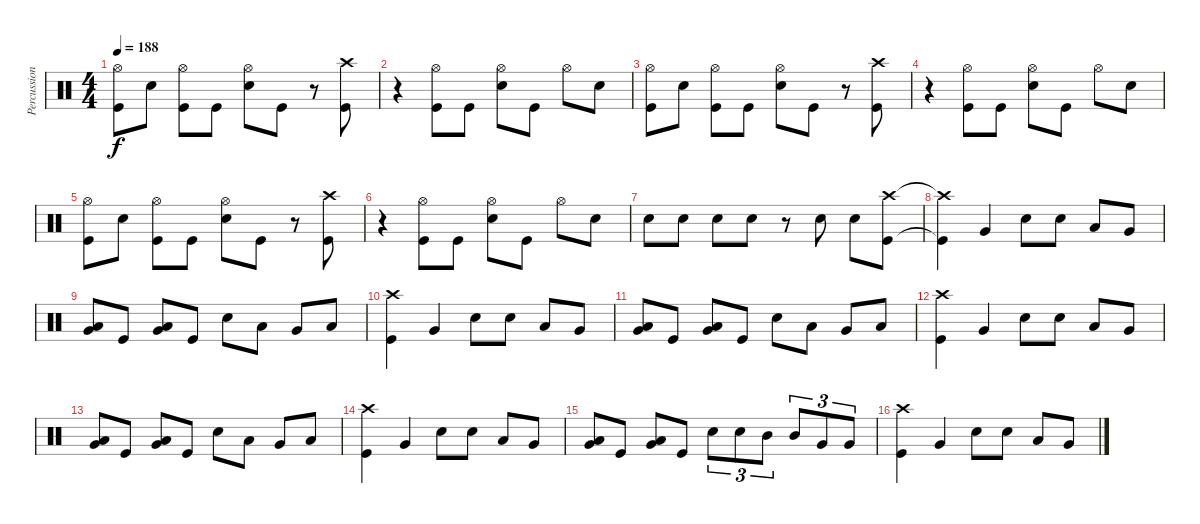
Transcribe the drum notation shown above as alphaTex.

\track ("Percussion" "Percussion") {instrument percussion}
\staff {score}
\articulation defaults
\ts (4 4)
\tempo 188
\clef neutral
\ks c
("Kick (hit)" "Hi-Hat (open)").8{dy f} "Snare (hit) 2".8 ("Kick (hit)" "Hi-Hat (open)").8 "Kick (hit)".8 ("Snare (hit) 2" "Hi-Hat (open)").8 "Kick (hit)".8 r.8 ("Kick (hit)" "Crash high (hit)").8 |
r.4 ("Kick (hit)" "Hi-Hat (open)").8 "Kick (hit)".8 ("Snare (hit) 2" "Hi-Hat (open)").8 "Kick (hit)".8 "Hi-Hat (open)".8 "Snare (hit) 2".8 |
("Kick (hit)" "Hi-Hat (open)").8 "Snare (hit) 2".8 ("Kick (hit)" "Hi-Hat (open)").8 "Kick (hit)".8 ("Snare (hit) 2" "Hi-Hat (open)").8 "Kick (hit)".8 r.8 ("Kick (hit)" "Crash high (hit)").8 |
r.4 ("Kick (hit)" "Hi-Hat (open)").8 "Kick (hit)".8 ("Snare (hit) 2" "Hi-Hat (open)").8 "Kick (hit)".8 "Hi-Hat (open)".8 "Snare (hit) 2".8 |
("Kick (hit)" "Hi-Hat (open)").8 "Snare (hit) 2".8 ("Kick (hit)" "Hi-Hat (open)").8 "Kick (hit)".8 ("Snare (hit) 2" "Hi-Hat (open)").8 "Kick (hit)".8 r.8 ("Kick (hit)" "Crash high (hit)").8 |
r.4 ("Kick (hit)" "Hi-Hat (open)").8 "Kick (hit)".8 ("Snare (hit) 2" "Hi-Hat (open)").8 "Kick (hit)".8 "Hi-Hat (open)".8 "Snare (hit) 2".8 |
"Snare (hit) 2".8 "Snare (hit) 2".8 "Snare (hit) 2".8 "Snare (hit) 2".8 r.8 "Snare (hit) 2".8 "Snare (hit) 2".8 ("Kick (hit)" "Crash high (hit)").8 |
("Kick (hit)"{t} "Crash high (hit)"{t}).4 "Very Low Tom (hit)".4 "Snare (hit) 2".8 "Snare (hit) 2".8 "Low Tom (hit)".8 "Very Low Tom (hit)".8 |
("Low Floor Tom (hit)" "Very Low Tom (hit)").8 "Kick (hit)".8 ("Low Floor Tom (hit)" "Very Low Tom (hit)").8 "Kick (hit)".8 "Snare (hit) 2".8 "Low Floor Tom (hit)".8 "Very Low Tom (hit)".8 "Low Floor Tom (hit)".8 |
("Kick (hit)" "Crash high (hit)").4 "Very Low Tom (hit)".4 "Snare (hit) 2".8 "Snare (hit) 2".8 "Low Tom (hit)".8 "Very Low Tom (hit)".8 |
("Low Floor Tom (hit)" "Very Low Tom (hit)").8 "Kick (hit)".8 ("Low Floor Tom (hit)" "Very Low Tom (hit)").8 "Kick (hit)".8 "Snare (hit) 2".8 "Low Floor Tom (hit)".8 "Very Low Tom (hit)".8 "Low Floor Tom (hit)".8 |
("Kick (hit)" "Crash high (hit)").4 "Very Low Tom (hit)".4 "Snare (hit) 2".8 "Snare (hit) 2".8 "Low Tom (hit)".8 "Very Low Tom (hit)".8 |
("Low Floor Tom (hit)" "Very Low Tom (hit)").8 "Kick (hit)".8 ("Low Floor Tom (hit)" "Very Low Tom (hit)").8 "Kick (hit)".8 "Snare (hit) 2".8 "Low Floor Tom (hit)".8 "Very Low Tom (hit)".8 "Low Floor Tom (hit)".8 |
("Kick (hit)" "Crash high (hit)").4 "Very Low Tom (hit)".4 "Snare (hit) 2".8 "Snare (hit) 2".8 "Low Tom (hit)".8 "Very Low Tom (hit)".8 |
("Low Floor Tom (hit)" "Very Low Tom (hit)").8 "Kick (hit)".8 ("Low Floor Tom (hit)" "Very Low Tom (hit)").8 "Kick (hit)".8 "Snare (hit) 2".8{tu (3 2)} "Snare (hit) 2".8{tu (3 2)} "Mid Tom (hit)".8{tu (3 2)} "Mid Tom (hit)".8{tu (3 2)} "Very Low Tom (hit)".8{tu (3 2)} "Very Low Tom (hit)".8{tu (3 2)} |
("Kick (hit)" "Crash high (hit)").4 "Very Low Tom (hit)".4 "Snare (hit) 2".8 "Snare (hit) 2".8 "Low Tom (hit)".8 "Very Low Tom (hit)".8
